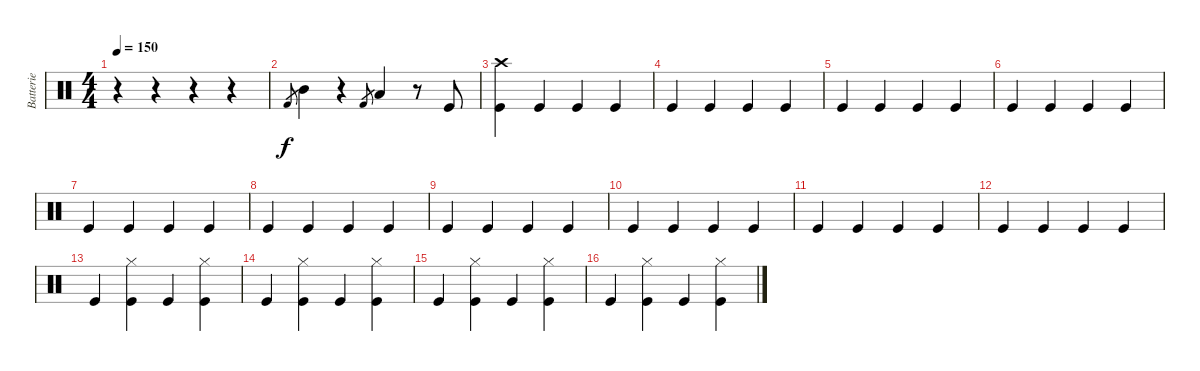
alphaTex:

\track ("Batterie" "Batterie") {instrument percussion}
\staff {score}
\articulation defaults
\ts (4 4)
\tempo 150
\clef neutral
\ks c
r.4{dy f} r.4 r.4 r.4 |
"Kick (hit) 2".8{gr} "Mid Tom (hit)".4 r.4 "Kick (hit) 2".8{gr} "Low Tom (hit)".4 r.8 "Kick (hit)".8 |
("Crash high (hit)" "Kick (hit)").4 "Kick (hit)".4 "Kick (hit)".4 "Kick (hit)".4 |
"Kick (hit)".4 "Kick (hit)".4 "Kick (hit)".4 "Kick (hit)".4 |
"Kick (hit)".4 "Kick (hit)".4 "Kick (hit)".4 "Kick (hit)".4 |
"Kick (hit)".4 "Kick (hit)".4 "Kick (hit)".4 "Kick (hit)".4 |
"Kick (hit)".4 "Kick (hit)".4 "Kick (hit)".4 "Kick (hit)".4 |
"Kick (hit)".4 "Kick (hit)".4 "Kick (hit)".4 "Kick (hit)".4 |
"Kick (hit)".4 "Kick (hit)".4 "Kick (hit)".4 "Kick (hit)".4 |
"Kick (hit)".4 "Kick (hit)".4 "Kick (hit)".4 "Kick (hit)".4 |
"Kick (hit)".4 "Kick (hit)".4 "Kick (hit)".4 "Kick (hit)".4 |
"Kick (hit)".4 "Kick (hit)".4 "Kick (hit)".4 "Kick (hit)".4 |
"Kick (hit)".4 ("Hi-Hat (closed)" "Kick (hit)").4 "Kick (hit)".4 ("Hi-Hat (closed)" "Kick (hit)").4 |
"Kick (hit)".4 ("Hi-Hat (closed)" "Kick (hit)").4 "Kick (hit)".4 ("Hi-Hat (closed)" "Kick (hit)").4 |
"Kick (hit)".4 ("Hi-Hat (closed)" "Kick (hit)").4 "Kick (hit)".4 ("Hi-Hat (closed)" "Kick (hit)").4 |
"Kick (hit)".4 ("Hi-Hat (closed)" "Kick (hit)").4 "Kick (hit)".4 ("Hi-Hat (closed)" "Kick (hit)").4
